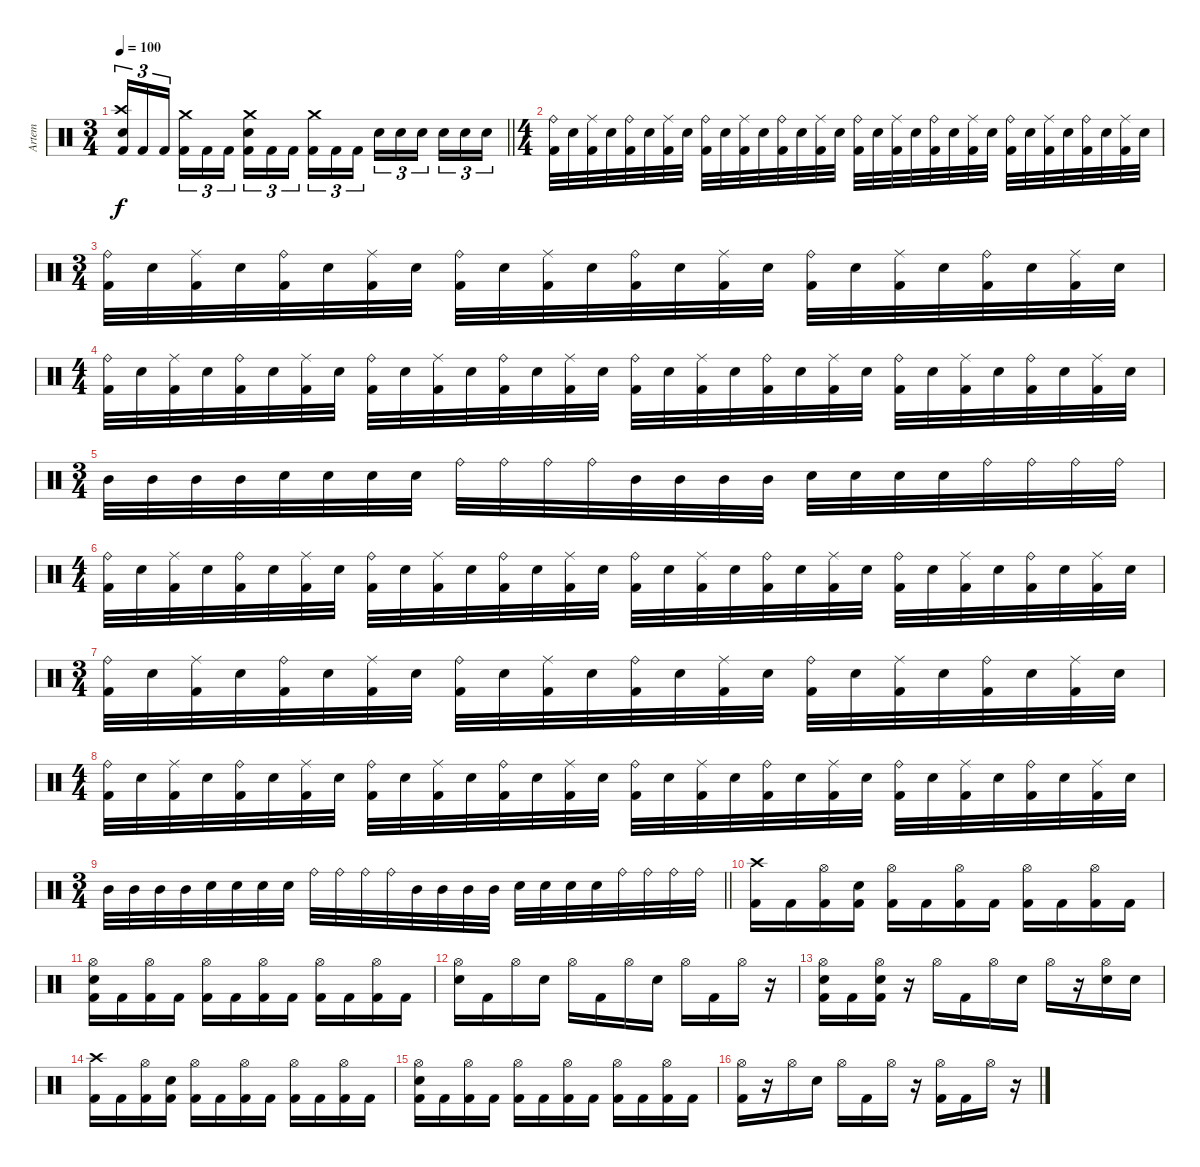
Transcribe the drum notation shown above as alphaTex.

\track ("Artem" "Artem") {instrument percussion}
\staff {score}
\articulation defaults
\ts (3 4)
\tempo 100
\clef neutral
\barLineRight lightlight
\ks c
("Kick (hit) 2" "Crash high (hit)" "Electric Snare (hit)").16{tu (3 2) dy f} "Kick (hit) 2".16{tu (3 2)} "Kick (hit) 2".16{tu (3 2) beam splitsecondary} ("Kick (hit) 2" "Crash medium (hit)").16{tu (3 2)} "Kick (hit) 2".16{tu (3 2)} "Kick (hit) 2".16{tu (3 2)} ("Kick (hit) 2" "Crash medium (hit)" "Electric Snare (hit)").16{tu (3 2)} "Kick (hit) 2".16{tu (3 2)} "Kick (hit) 2".16{tu (3 2) beam splitsecondary} ("Kick (hit) 2" "Crash medium (hit)").16{tu (3 2)} "Kick (hit) 2".16{tu (3 2)} "Kick (hit) 2".16{tu (3 2)} "Electric Snare (hit)".16{tu (3 2)} "Electric Snare (hit)".16{tu (3 2)} "Electric Snare (hit)".16{tu (3 2) beam splitsecondary} "Electric Snare (hit)".16{tu (3 2)} "Electric Snare (hit)".16{tu (3 2)} "Electric Snare (hit)".16{tu (3 2)} |
\ts (4 4)
\section ("" "")
("Kick (hit) 2" "Ride (bell)").32 "Snare (hit) 2".32 ("Kick (hit) 2" "Ride (middle)").32 "Snare (hit) 2".32 ("Kick (hit) 2" "Ride (bell)").32 "Snare (hit) 2".32 ("Kick (hit) 2" "Ride (middle)").32 "Snare (hit) 2".32 ("Kick (hit) 2" "Ride (bell)").32 "Snare (hit) 2".32 ("Kick (hit) 2" "Ride (middle)").32 "Snare (hit) 2".32 ("Kick (hit) 2" "Ride (bell)").32 "Snare (hit) 2".32 ("Kick (hit) 2" "Ride (middle)").32 "Snare (hit) 2".32 ("Kick (hit) 2" "Ride (bell)").32 "Snare (hit) 2".32 ("Kick (hit) 2" "Ride (middle)").32 "Snare (hit) 2".32 ("Kick (hit) 2" "Ride (bell)").32 "Snare (hit) 2".32 ("Kick (hit) 2" "Ride (middle)").32 "Snare (hit) 2".32 ("Kick (hit) 2" "Ride (bell)").32 "Snare (hit) 2".32 ("Kick (hit) 2" "Ride (middle)").32 "Snare (hit) 2".32 ("Kick (hit) 2" "Ride (bell)").32 "Snare (hit) 2".32 ("Kick (hit) 2" "Ride (middle)").32 "Snare (hit) 2".32 |
\ts (3 4)
("Kick (hit) 2" "Ride (bell)").32 "Snare (hit) 2".32 ("Kick (hit) 2" "Ride (middle)").32 "Snare (hit) 2".32 ("Kick (hit) 2" "Ride (bell)").32 "Snare (hit) 2".32 ("Kick (hit) 2" "Ride (middle)").32 "Snare (hit) 2".32 ("Kick (hit) 2" "Ride (bell)").32 "Snare (hit) 2".32 ("Kick (hit) 2" "Ride (middle)").32 "Snare (hit) 2".32 ("Kick (hit) 2" "Ride (bell)").32 "Snare (hit) 2".32 ("Kick (hit) 2" "Ride (middle)").32 "Snare (hit) 2".32 ("Kick (hit) 2" "Ride (bell)").32 "Snare (hit) 2".32 ("Kick (hit) 2" "Ride (middle)").32 "Snare (hit) 2".32 ("Kick (hit) 2" "Ride (bell)").32 "Snare (hit) 2".32 ("Kick (hit) 2" "Ride (middle)").32 "Snare (hit) 2".32 |
\ts (4 4)
("Kick (hit) 2" "Ride (bell)").32 "Snare (hit) 2".32 ("Kick (hit) 2" "Ride (middle)").32 "Snare (hit) 2".32 ("Kick (hit) 2" "Ride (bell)").32 "Snare (hit) 2".32 ("Kick (hit) 2" "Ride (middle)").32 "Snare (hit) 2".32 ("Kick (hit) 2" "Ride (bell)").32 "Snare (hit) 2".32 ("Kick (hit) 2" "Ride (middle)").32 "Snare (hit) 2".32 ("Kick (hit) 2" "Ride (bell)").32 "Snare (hit) 2".32 ("Kick (hit) 2" "Ride (middle)").32 "Snare (hit) 2".32 ("Kick (hit) 2" "Ride (bell)").32 "Snare (hit) 2".32 ("Kick (hit) 2" "Ride (middle)").32 "Snare (hit) 2".32 ("Kick (hit) 2" "Ride (bell)").32 "Snare (hit) 2".32 ("Kick (hit) 2" "Ride (middle)").32 "Snare (hit) 2".32 ("Kick (hit) 2" "Ride (bell)").32 "Snare (hit) 2".32 ("Kick (hit) 2" "Ride (middle)").32 "Snare (hit) 2".32 ("Kick (hit) 2" "Ride (bell)").32 "Snare (hit) 2".32 ("Kick (hit) 2" "Ride (middle)").32 "Snare (hit) 2".32 |
\ts (3 4)
"Mid Tom (hit)".32 "Mid Tom (hit)".32 "Mid Tom (hit)".32 "Mid Tom (hit)".32 "Snare (hit) 2".32 "Snare (hit) 2".32 "Snare (hit) 2".32 "Snare (hit) 2".32 "Ride (bell)".32 "Ride (bell)".32 "Ride (bell)".32 "Ride (bell)".32 "Mid Tom (hit)".32 "Mid Tom (hit)".32 "Mid Tom (hit)".32 "Mid Tom (hit)".32 "Snare (hit) 2".32 "Snare (hit) 2".32 "Snare (hit) 2".32 "Snare (hit) 2".32 "Ride (bell)".32 "Ride (bell)".32 "Ride (bell)".32 "Ride (bell)".32 |
\ts (4 4)
("Kick (hit) 2" "Ride (bell)").32 "Snare (hit) 2".32 ("Kick (hit) 2" "Ride (middle)").32 "Snare (hit) 2".32 ("Kick (hit) 2" "Ride (bell)").32 "Snare (hit) 2".32 ("Kick (hit) 2" "Ride (middle)").32 "Snare (hit) 2".32 ("Kick (hit) 2" "Ride (bell)").32 "Snare (hit) 2".32 ("Kick (hit) 2" "Ride (middle)").32 "Snare (hit) 2".32 ("Kick (hit) 2" "Ride (bell)").32 "Snare (hit) 2".32 ("Kick (hit) 2" "Ride (middle)").32 "Snare (hit) 2".32 ("Kick (hit) 2" "Ride (bell)").32 "Snare (hit) 2".32 ("Kick (hit) 2" "Ride (middle)").32 "Snare (hit) 2".32 ("Kick (hit) 2" "Ride (bell)").32 "Snare (hit) 2".32 ("Kick (hit) 2" "Ride (middle)").32 "Snare (hit) 2".32 ("Kick (hit) 2" "Ride (bell)").32 "Snare (hit) 2".32 ("Kick (hit) 2" "Ride (middle)").32 "Snare (hit) 2".32 ("Kick (hit) 2" "Ride (bell)").32 "Snare (hit) 2".32 ("Kick (hit) 2" "Ride (middle)").32 "Snare (hit) 2".32 |
\ts (3 4)
("Kick (hit) 2" "Ride (bell)").32 "Snare (hit) 2".32 ("Kick (hit) 2" "Ride (middle)").32 "Snare (hit) 2".32 ("Kick (hit) 2" "Ride (bell)").32 "Snare (hit) 2".32 ("Kick (hit) 2" "Ride (middle)").32 "Snare (hit) 2".32 ("Kick (hit) 2" "Ride (bell)").32 "Snare (hit) 2".32 ("Kick (hit) 2" "Ride (middle)").32 "Snare (hit) 2".32 ("Kick (hit) 2" "Ride (bell)").32 "Snare (hit) 2".32 ("Kick (hit) 2" "Ride (middle)").32 "Snare (hit) 2".32 ("Kick (hit) 2" "Ride (bell)").32 "Snare (hit) 2".32 ("Kick (hit) 2" "Ride (middle)").32 "Snare (hit) 2".32 ("Kick (hit) 2" "Ride (bell)").32 "Snare (hit) 2".32 ("Kick (hit) 2" "Ride (middle)").32 "Snare (hit) 2".32 |
\ts (4 4)
("Kick (hit) 2" "Ride (bell)").32 "Snare (hit) 2".32 ("Kick (hit) 2" "Ride (middle)").32 "Snare (hit) 2".32 ("Kick (hit) 2" "Ride (bell)").32 "Snare (hit) 2".32 ("Kick (hit) 2" "Ride (middle)").32 "Snare (hit) 2".32 ("Kick (hit) 2" "Ride (bell)").32 "Snare (hit) 2".32 ("Kick (hit) 2" "Ride (middle)").32 "Snare (hit) 2".32 ("Kick (hit) 2" "Ride (bell)").32 "Snare (hit) 2".32 ("Kick (hit) 2" "Ride (middle)").32 "Snare (hit) 2".32 ("Kick (hit) 2" "Ride (bell)").32 "Snare (hit) 2".32 ("Kick (hit) 2" "Ride (middle)").32 "Snare (hit) 2".32 ("Kick (hit) 2" "Ride (bell)").32 "Snare (hit) 2".32 ("Kick (hit) 2" "Ride (middle)").32 "Snare (hit) 2".32 ("Kick (hit) 2" "Ride (bell)").32 "Snare (hit) 2".32 ("Kick (hit) 2" "Ride (middle)").32 "Snare (hit) 2".32 ("Kick (hit) 2" "Ride (bell)").32 "Snare (hit) 2".32 ("Kick (hit) 2" "Ride (middle)").32 "Snare (hit) 2".32 |
\ts (3 4)
\barLineRight lightlight "Mid Tom (hit)".32 "Mid Tom (hit)".32 "Mid Tom (hit)".32 "Mid Tom (hit)".32 "Snare (hit) 2".32 "Snare (hit) 2".32 "Snare (hit) 2".32 "Snare (hit) 2".32 "Ride (bell)".32 "Ride (bell)".32 "Ride (bell)".32 "Ride (bell)".32 "Mid Tom (hit)".32 "Mid Tom (hit)".32 "Mid Tom (hit)".32 "Mid Tom (hit)".32 "Snare (hit) 2".32 "Snare (hit) 2".32 "Snare (hit) 2".32 "Snare (hit) 2".32 "Ride (bell)".32 "Ride (bell)".32 "Ride (bell)".32 "Ride (bell)".32
|
\section ("" "")
("Kick (hit) 2" "Crash high (hit)").16 "Kick (hit) 2".16 ("Hi-Hat (open)" "Kick (hit) 2").16 ("Snare (hit) 2" "Kick (hit) 2").16 ("Hi-Hat (open)" "Kick (hit) 2").16 "Kick (hit) 2".16 ("Hi-Hat (open)" "Kick (hit) 2").16 "Kick (hit) 2".16 ("Hi-Hat (open)" "Kick (hit) 2").16 "Kick (hit) 2".16 ("Hi-Hat (open)" "Kick (hit) 2").16 "Kick (hit) 2".16 |
("Kick (hit) 2" "Snare (hit) 2" "Hi-Hat (open)").16 "Kick (hit) 2".16 ("Kick (hit) 2" "Hi-Hat (open)").16 "Kick (hit) 2".16 ("Hi-Hat (open)" "Kick (hit) 2").16 "Kick (hit) 2".16 ("Hi-Hat (open)" "Kick (hit) 2").16 "Kick (hit) 2".16 ("Hi-Hat (open)" "Kick (hit) 2").16 "Kick (hit) 2".16 ("Hi-Hat (open)" "Kick (hit) 2").16 "Kick (hit) 2".16 |
("Hi-Hat (open)" "Snare (hit) 2").16 "Kick (hit) 2".16 "Hi-Hat (open)".16 "Snare (hit) 2".16 "Hi-Hat (open)".16 "Kick (hit) 2".16 "Hi-Hat (open)".16 "Snare (hit) 2".16 "Hi-Hat (open)".16 "Kick (hit) 2".16 "Hi-Hat (open)".16 r.16 |
("Hi-Hat (open)" "Kick (hit) 2" "Snare (hit) 2").16 "Kick (hit) 2".16 ("Hi-Hat (open)" "Kick (hit) 2" "Snare (hit) 2").16 r.16 "Hi-Hat (open)".16 "Kick (hit) 2".16 "Hi-Hat (open)".16 "Snare (hit) 2".16 "Hi-Hat (open)".16 r.16 ("Hi-Hat (open)" "Snare (hit) 2").16 "Snare (hit) 2".16 |
("Kick (hit) 2" "Crash high (hit)").16 "Kick (hit) 2".16 ("Hi-Hat (open)" "Kick (hit) 2").16 ("Snare (hit) 2" "Kick (hit) 2").16 ("Hi-Hat (open)" "Kick (hit) 2").16 "Kick (hit) 2".16 ("Hi-Hat (open)" "Kick (hit) 2").16 "Kick (hit) 2".16 ("Hi-Hat (open)" "Kick (hit) 2").16 "Kick (hit) 2".16 ("Hi-Hat (open)" "Kick (hit) 2").16 "Kick (hit) 2".16 |
("Kick (hit) 2" "Snare (hit) 2" "Hi-Hat (open)").16 "Kick (hit) 2".16 ("Kick (hit) 2" "Hi-Hat (open)").16 "Kick (hit) 2".16 ("Hi-Hat (open)" "Kick (hit) 2").16 "Kick (hit) 2".16 ("Hi-Hat (open)" "Kick (hit) 2").16 "Kick (hit) 2".16 ("Hi-Hat (open)" "Kick (hit) 2").16 "Kick (hit) 2".16 ("Hi-Hat (open)" "Kick (hit) 2").16 "Kick (hit) 2".16 |
("Kick (hit) 2" "Hi-Hat (open)").16 r.16 "Hi-Hat (open)".16 "Snare (hit) 2".16 "Hi-Hat (open)".16 "Kick (hit) 2".16 "Hi-Hat (open)".16 r.16 ("Hi-Hat (open)" "Kick (hit) 2").16 "Kick (hit) 2".16 "Hi-Hat (open)".16 r.16
